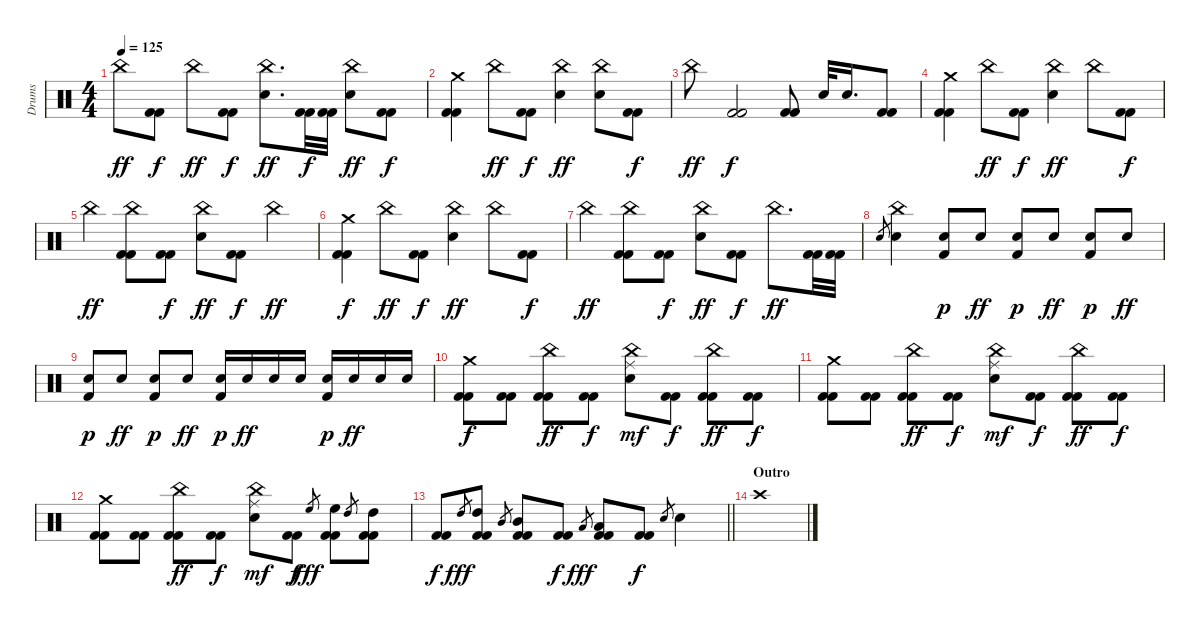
\track ("Drums" "Drums") {instrument percussion}
\staff {score}
\articulation defaults
\ts (4 4)
\tempo 125
\clef neutral
\ks c "China (hit)".8{dy ff}
("Kick (hit) 2" "Kick (hit) 2").8{dy f} "China (hit)".8{dy ff} ("Kick (hit) 2" "Kick (hit) 2").8{dy f} ("China (hit)" "Electric Snare (hit)").8{d dy ff} ("Kick (hit) 2" "Kick (hit) 2").32{dy f} ("Kick (hit) 2" "Kick (hit) 2").32 ("China (hit)" "Electric Snare (hit)").8{dy ff} ("Kick (hit) 2" "Kick (hit) 2").8{dy f} |
("Crash medium (hit)" "Kick (hit) 2" "Kick (hit) 2").4 "China (hit)".8{dy ff} ("Kick (hit) 2" "Kick (hit) 2").8{dy f} ("China (hit)" "Electric Snare (hit)").4{dy ff} ("China (hit)" "Electric Snare (hit)").8 ("Kick (hit) 2" "Kick (hit) 2").8{dy f} |
"China (hit)".8{dy ff} ("Kick (hit) 2" "Kick (hit) 2").2{dy f} ("Kick (hit) 2" "Kick (hit) 2").8 "Electric Snare (hit)".32 "Electric Snare (hit)".16{d} ("Kick (hit) 2" "Kick (hit) 2").8 |
("Crash medium (hit)" "Kick (hit) 2" "Kick (hit) 2").4 "China (hit)".8{dy ff} ("Kick (hit) 2" "Kick (hit) 2").8{dy f} ("China (hit)" "Electric Snare (hit)").4{dy ff} "China (hit)".8 ("Kick (hit) 2" "Kick (hit) 2").8{dy f} |
"China (hit)".4{dy ff} ("China (hit)" "Kick (hit) 2" "Kick (hit) 2").8 ("Kick (hit) 2" "Kick (hit) 2").8{dy f} ("China (hit)" "Electric Snare (hit)").8{dy ff} ("Kick (hit) 2" "Kick (hit) 2").8{dy f} "China (hit)".4{dy ff} |
("Crash medium (hit)" "Kick (hit) 2" "Kick (hit) 2").4{dy f} "China (hit)".8{dy ff} ("Kick (hit) 2" "Kick (hit) 2").8{dy f} ("China (hit)" "Electric Snare (hit)").4{dy ff} "China (hit)".8 ("Kick (hit) 2" "Kick (hit) 2").8{dy f} |
"China (hit)".4{dy ff} ("China (hit)" "Kick (hit) 2" "Kick (hit) 2").8 ("Kick (hit) 2" "Kick (hit) 2").8{dy f} ("China (hit)" "Electric Snare (hit)").8{dy ff} ("Kick (hit) 2" "Kick (hit) 2").8{dy f} "China (hit)".8{d dy ff} ("Kick (hit) 2" "Kick (hit) 2").32 ("Kick (hit) 2" "Kick (hit) 2").32 |
"Electric Snare (hit)".8{gr} ("China (hit)" "Electric Snare (hit)").4 ("Electric Snare (hit)" "Kick (hit) 2").8{dy p} "Electric Snare (hit)".8{dy ff} ("Electric Snare (hit)" "Kick (hit) 2").8{dy p} "Electric Snare (hit)".8{dy ff} ("Electric Snare (hit)" "Kick (hit) 2").8{dy p} "Electric Snare (hit)".8{dy ff} |
("Electric Snare (hit)" "Kick (hit) 2").8{dy p} "Electric Snare (hit)".8{dy ff} ("Electric Snare (hit)" "Kick (hit) 2").8{dy p} "Electric Snare (hit)".8{dy ff} ("Electric Snare (hit)" "Kick (hit) 2").16{dy p} "Electric Snare (hit)".16{dy ff} "Electric Snare (hit)".16 "Electric Snare (hit)".16 ("Electric Snare (hit)" "Kick (hit) 2").16{dy p} "Electric Snare (hit)".16{dy ff} "Electric Snare (hit)".16 "Electric Snare (hit)".16 |
("Crash medium (hit)" "Kick (hit) 2" "Kick (hit) 2").8{dy f} ("Kick (hit) 2" "Kick (hit) 2").8 ("China (hit)" "Kick (hit) 2" "Kick (hit) 2").8{dy ff} ("Kick (hit) 2" "Kick (hit) 2").8{dy f} ("China (hit)" "Ride (middle)" "Electric Snare (hit)").8{dy mf} ("Kick (hit) 2" "Kick (hit) 2").8{dy f} ("China (hit)" "Kick (hit) 2" "Kick (hit) 2").8{dy ff} ("Kick (hit) 2" "Kick (hit) 2").8{dy f} |
("Crash medium (hit)" "Kick (hit) 2" "Kick (hit) 2").8 ("Kick (hit) 2" "Kick (hit) 2").8 ("China (hit)" "Kick (hit) 2" "Kick (hit) 2").8{dy ff} ("Kick (hit) 2" "Kick (hit) 2").8{dy f} ("China (hit)" "Ride (middle)" "Electric Snare (hit)").8{dy mf} ("Kick (hit) 2" "Kick (hit) 2").8{dy f} ("China (hit)" "Kick (hit) 2" "Kick (hit) 2").8{dy ff} ("Kick (hit) 2" "Kick (hit) 2").8{dy f} |
("Crash medium (hit)" "Kick (hit) 2" "Kick (hit) 2").8 ("Kick (hit) 2" "Kick (hit) 2").8 ("China (hit)" "Kick (hit) 2" "Kick (hit) 2").8{dy ff} ("Kick (hit) 2" "Kick (hit) 2").8{dy f} ("China (hit)" "Ride (middle)" "Electric Snare (hit)").8{dy mf} ("Kick (hit) 2" "Kick (hit) 2").8{dy f} "High Floor Tom (hit)".8{gr dy fff} ("High Floor Tom (hit)" "Kick (hit) 2" "Kick (hit) 2").8 "High Tom (hit)".8{gr} ("High Tom (hit)" "Kick (hit) 2" "Kick (hit) 2").8 |
\barLineRight lightlight
("Kick (hit) 2" "Kick (hit) 2").8{dy f} "High Tom (hit)".8{gr dy fff} ("High Tom (hit)" "Kick (hit) 2" "Kick (hit) 2").8 "Mid Tom (hit)".8{gr} ("Mid Tom (hit)" "Kick (hit) 2" "Kick (hit) 2").8 ("Kick (hit) 2" "Kick (hit) 2").8{dy f} "Low Tom (hit)".8{gr dy fff} ("Low Tom (hit)" "Kick (hit) 2" "Kick (hit) 2").8 ("Kick (hit) 2" "Kick (hit) 2").8{dy f} "Electric Snare (hit)".8{gr} "Electric Snare (hit)".4 |
\section ("" "Outro")
"Crash high (hit)".1
